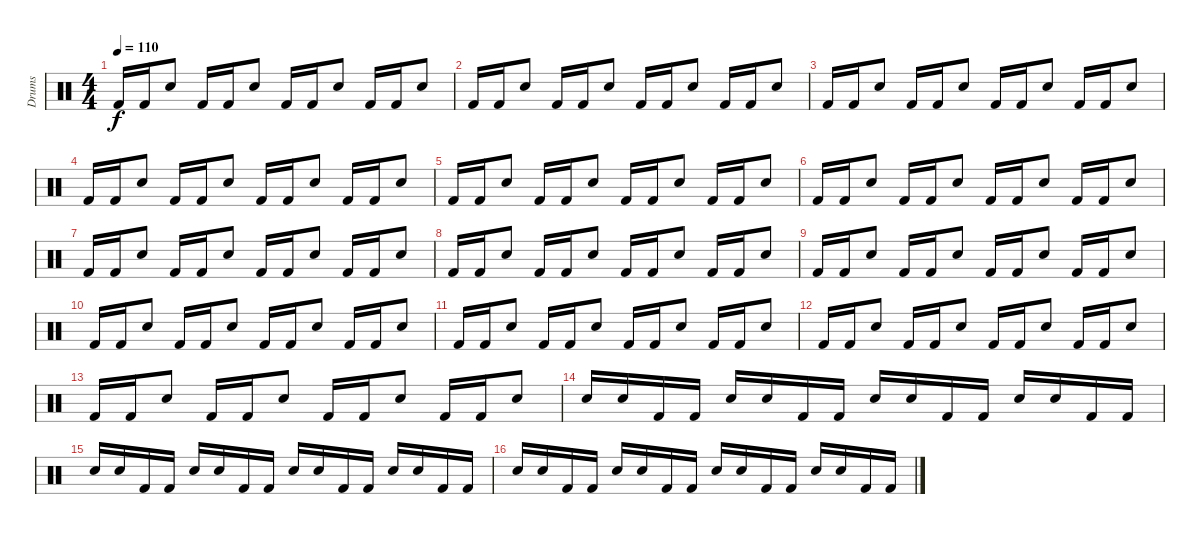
\track ("Drums" "Drums") {instrument percussion}
\staff {score}
\articulation defaults
\ts (4 4)
\tempo 110
\clef neutral
\ks c "Kick (hit) 2".16{dy f} "Kick (hit) 2".16 "Snare (hit) 2".8 "Kick (hit) 2".16 "Kick (hit) 2".16 "Snare (hit) 2".8 "Kick (hit) 2".16 "Kick (hit) 2".16 "Snare (hit) 2".8 "Kick (hit) 2".16 "Kick (hit) 2".16 "Snare (hit) 2".8
|
"Kick (hit) 2".16 "Kick (hit) 2".16 "Snare (hit) 2".8 "Kick (hit) 2".16 "Kick (hit) 2".16 "Snare (hit) 2".8 "Kick (hit) 2".16 "Kick (hit) 2".16 "Snare (hit) 2".8 "Kick (hit) 2".16 "Kick (hit) 2".16 "Snare (hit) 2".8 |
"Kick (hit) 2".16 "Kick (hit) 2".16 "Snare (hit) 2".8 "Kick (hit) 2".16 "Kick (hit) 2".16 "Snare (hit) 2".8 "Kick (hit) 2".16 "Kick (hit) 2".16 "Snare (hit) 2".8 "Kick (hit) 2".16 "Kick (hit) 2".16 "Snare (hit) 2".8 |
"Kick (hit) 2".16 "Kick (hit) 2".16 "Snare (hit) 2".8 "Kick (hit) 2".16 "Kick (hit) 2".16 "Snare (hit) 2".8 "Kick (hit) 2".16 "Kick (hit) 2".16 "Snare (hit) 2".8 "Kick (hit) 2".16 "Kick (hit) 2".16 "Snare (hit) 2".8 |
"Kick (hit) 2".16 "Kick (hit) 2".16 "Snare (hit) 2".8 "Kick (hit) 2".16 "Kick (hit) 2".16 "Snare (hit) 2".8 "Kick (hit) 2".16 "Kick (hit) 2".16 "Snare (hit) 2".8 "Kick (hit) 2".16 "Kick (hit) 2".16 "Snare (hit) 2".8 |
"Kick (hit) 2".16 "Kick (hit) 2".16 "Snare (hit) 2".8 "Kick (hit) 2".16 "Kick (hit) 2".16 "Snare (hit) 2".8 "Kick (hit) 2".16 "Kick (hit) 2".16 "Snare (hit) 2".8 "Kick (hit) 2".16 "Kick (hit) 2".16 "Snare (hit) 2".8 |
"Kick (hit) 2".16 "Kick (hit) 2".16 "Snare (hit) 2".8 "Kick (hit) 2".16 "Kick (hit) 2".16 "Snare (hit) 2".8 "Kick (hit) 2".16 "Kick (hit) 2".16 "Snare (hit) 2".8 "Kick (hit) 2".16 "Kick (hit) 2".16 "Snare (hit) 2".8 |
"Kick (hit) 2".16 "Kick (hit) 2".16 "Snare (hit) 2".8 "Kick (hit) 2".16 "Kick (hit) 2".16 "Snare (hit) 2".8 "Kick (hit) 2".16 "Kick (hit) 2".16 "Snare (hit) 2".8 "Kick (hit) 2".16 "Kick (hit) 2".16 "Snare (hit) 2".8 |
"Kick (hit) 2".16 "Kick (hit) 2".16 "Snare (hit) 2".8 "Kick (hit) 2".16 "Kick (hit) 2".16 "Snare (hit) 2".8 "Kick (hit) 2".16 "Kick (hit) 2".16 "Snare (hit) 2".8 "Kick (hit) 2".16 "Kick (hit) 2".16 "Snare (hit) 2".8 |
"Kick (hit) 2".16 "Kick (hit) 2".16 "Snare (hit) 2".8 "Kick (hit) 2".16 "Kick (hit) 2".16 "Snare (hit) 2".8 "Kick (hit) 2".16 "Kick (hit) 2".16 "Snare (hit) 2".8 "Kick (hit) 2".16 "Kick (hit) 2".16 "Snare (hit) 2".8 |
"Kick (hit) 2".16 "Kick (hit) 2".16 "Snare (hit) 2".8 "Kick (hit) 2".16 "Kick (hit) 2".16 "Snare (hit) 2".8 "Kick (hit) 2".16 "Kick (hit) 2".16 "Snare (hit) 2".8 "Kick (hit) 2".16 "Kick (hit) 2".16 "Snare (hit) 2".8 |
"Kick (hit) 2".16 "Kick (hit) 2".16 "Snare (hit) 2".8 "Kick (hit) 2".16 "Kick (hit) 2".16 "Snare (hit) 2".8 "Kick (hit) 2".16 "Kick (hit) 2".16 "Snare (hit) 2".8 "Kick (hit) 2".16 "Kick (hit) 2".16 "Snare (hit) 2".8 |
"Kick (hit) 2".16 "Kick (hit) 2".16 "Snare (hit) 2".8 "Kick (hit) 2".16 "Kick (hit) 2".16 "Snare (hit) 2".8 "Kick (hit) 2".16 "Kick (hit) 2".16 "Snare (hit) 2".8 "Kick (hit) 2".16 "Kick (hit) 2".16 "Snare (hit) 2".8 |
"Snare (hit) 2".16 "Snare (hit) 2".16 "Kick (hit) 2".16 "Kick (hit) 2".16 "Snare (hit) 2".16 "Snare (hit) 2".16 "Kick (hit) 2".16 "Kick (hit) 2".16 "Snare (hit) 2".16 "Snare (hit) 2".16 "Kick (hit) 2".16 "Kick (hit) 2".16 "Snare (hit) 2".16 "Snare (hit) 2".16 "Kick (hit) 2".16 "Kick (hit) 2".16 |
"Snare (hit) 2".16 "Snare (hit) 2".16 "Kick (hit) 2".16 "Kick (hit) 2".16 "Snare (hit) 2".16 "Snare (hit) 2".16 "Kick (hit) 2".16 "Kick (hit) 2".16 "Snare (hit) 2".16 "Snare (hit) 2".16 "Kick (hit) 2".16 "Kick (hit) 2".16 "Snare (hit) 2".16 "Snare (hit) 2".16 "Kick (hit) 2".16 "Kick (hit) 2".16 |
"Snare (hit) 2".16 "Snare (hit) 2".16 "Kick (hit) 2".16 "Kick (hit) 2".16 "Snare (hit) 2".16 "Snare (hit) 2".16 "Kick (hit) 2".16 "Kick (hit) 2".16 "Snare (hit) 2".16 "Snare (hit) 2".16 "Kick (hit) 2".16 "Kick (hit) 2".16 "Snare (hit) 2".16 "Snare (hit) 2".16 "Kick (hit) 2".16 "Kick (hit) 2".16
